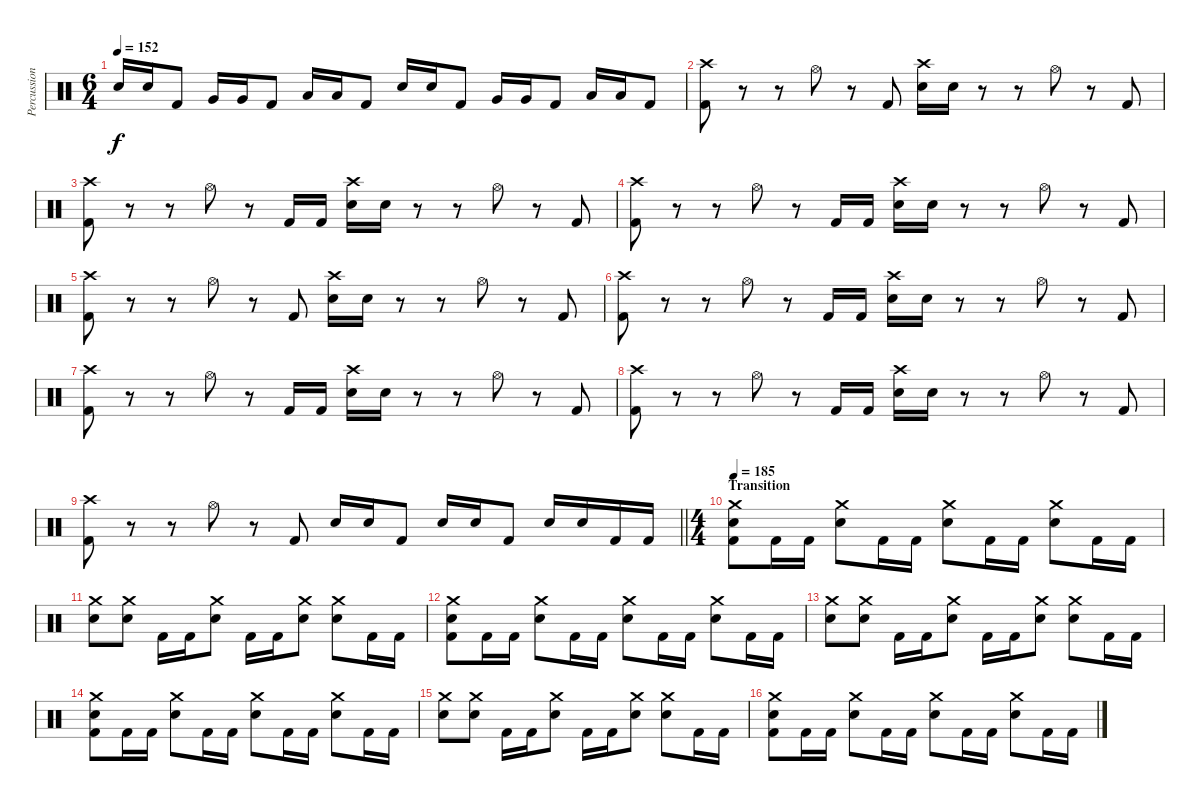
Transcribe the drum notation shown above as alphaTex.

\track ("Percussion" "Percussion") {instrument percussion}
\staff {score}
\articulation defaults
\ts (6 4)
\tempo 152
\clef neutral
\ks c "Electric Snare (hit)".16{dy f} "Electric Snare (hit)".16 "Kick (hit) 2".8 "Very Low Tom (hit)".16 "Very Low Tom (hit)".16 "Kick (hit) 2".8 "Low Floor Tom (hit)".16 "Low Floor Tom (hit)".16 "Kick (hit) 2".8 "Electric Snare (hit)".16 "Electric Snare (hit)".16 "Kick (hit) 2".8 "Very Low Tom (hit)".16 "Very Low Tom (hit)".16 "Kick (hit) 2".8 "Low Floor Tom (hit)".16 "Low Floor Tom (hit)".16 "Kick (hit) 2".8
|
("Crash high (hit)" "Kick (hit) 2").8 r.8 r.8 "Hi-Hat (open)".8 r.8 "Kick (hit) 2".8 ("Crash high (hit)" "Electric Snare (hit)").16 "Electric Snare (hit)".16 r.8 r.8 "Hi-Hat (open)".8 r.8 "Kick (hit) 2".8 |
("Crash high (hit)" "Kick (hit) 2").8 r.8 r.8 "Hi-Hat (open)".8 r.8 "Kick (hit) 2".16 "Kick (hit) 2".16 ("Crash high (hit)" "Electric Snare (hit)").16 "Electric Snare (hit)".16 r.8 r.8 "Hi-Hat (open)".8 r.8 "Kick (hit) 2".8 |
("Crash high (hit)" "Kick (hit) 2").8 r.8 r.8 "Hi-Hat (open)".8 r.8 "Kick (hit) 2".16 "Kick (hit) 2".16 ("Crash high (hit)" "Electric Snare (hit)").16 "Electric Snare (hit)".16 r.8 r.8 "Hi-Hat (open)".8 r.8 "Kick (hit) 2".8 |
("Crash high (hit)" "Kick (hit) 2").8 r.8 r.8 "Hi-Hat (open)".8 r.8 "Kick (hit) 2".8 ("Crash high (hit)" "Electric Snare (hit)").16 "Electric Snare (hit)".16 r.8 r.8 "Hi-Hat (open)".8 r.8 "Kick (hit) 2".8 |
("Crash high (hit)" "Kick (hit) 2").8 r.8 r.8 "Hi-Hat (open)".8 r.8 "Kick (hit) 2".16 "Kick (hit) 2".16 ("Crash high (hit)" "Electric Snare (hit)").16 "Electric Snare (hit)".16 r.8 r.8 "Hi-Hat (open)".8 r.8 "Kick (hit) 2".8 |
("Crash high (hit)" "Kick (hit) 2").8 r.8 r.8 "Hi-Hat (open)".8 r.8 "Kick (hit) 2".16 "Kick (hit) 2".16 ("Crash high (hit)" "Electric Snare (hit)").16 "Electric Snare (hit)".16 r.8 r.8 "Hi-Hat (open)".8 r.8 "Kick (hit) 2".8 |
("Crash high (hit)" "Kick (hit) 2").8 r.8 r.8 "Hi-Hat (open)".8 r.8 "Kick (hit) 2".16 "Kick (hit) 2".16 ("Crash high (hit)" "Electric Snare (hit)").16 "Electric Snare (hit)".16 r.8 r.8 "Hi-Hat (open)".8 r.8 "Kick (hit) 2".8 |
\barLineRight lightlight
("Crash high (hit)" "Kick (hit) 2").8 r.8 r.8 "Hi-Hat (open)".8 r.8 "Kick (hit) 2".8 "Electric Snare (hit)".16 "Electric Snare (hit)".16 "Kick (hit) 2".8 "Electric Snare (hit)".16 "Electric Snare (hit)".16 "Kick (hit) 2".8 "Electric Snare (hit)".16 "Electric Snare (hit)".16 "Kick (hit) 2".16 "Kick (hit) 2".16 |
\ts (4 4)
\section ("" "Transition")
\tempo 185
("Crash medium (hit)" "Electric Snare (hit)" "Kick (hit) 2").8 "Kick (hit) 2".16 "Kick (hit) 2".16 ("Crash medium (hit)" "Electric Snare (hit)").8 "Kick (hit) 2".16 "Kick (hit) 2".16 ("Crash medium (hit)" "Electric Snare (hit)").8 "Kick (hit) 2".16 "Kick (hit) 2".16 ("Crash medium (hit)" "Electric Snare (hit)").8 "Kick (hit) 2".16 "Kick (hit) 2".16 |
("Crash medium (hit)" "Electric Snare (hit)").8 ("Crash medium (hit)" "Electric Snare (hit)").8 "Kick (hit) 2".16 "Kick (hit) 2".16 ("Crash medium (hit)" "Electric Snare (hit)").8 "Kick (hit) 2".16 "Kick (hit) 2".16 ("Crash medium (hit)" "Electric Snare (hit)").8 ("Crash medium (hit)" "Electric Snare (hit)").8 "Kick (hit) 2".16 "Kick (hit) 2".16 |
("Crash medium (hit)" "Electric Snare (hit)" "Kick (hit) 2").8 "Kick (hit) 2".16 "Kick (hit) 2".16 ("Crash medium (hit)" "Electric Snare (hit)").8 "Kick (hit) 2".16 "Kick (hit) 2".16 ("Crash medium (hit)" "Electric Snare (hit)").8 "Kick (hit) 2".16 "Kick (hit) 2".16 ("Crash medium (hit)" "Electric Snare (hit)").8 "Kick (hit) 2".16 "Kick (hit) 2".16 |
("Crash medium (hit)" "Electric Snare (hit)").8 ("Crash medium (hit)" "Electric Snare (hit)").8 "Kick (hit) 2".16 "Kick (hit) 2".16 ("Crash medium (hit)" "Electric Snare (hit)").8 "Kick (hit) 2".16 "Kick (hit) 2".16 ("Crash medium (hit)" "Electric Snare (hit)").8 ("Crash medium (hit)" "Electric Snare (hit)").8 "Kick (hit) 2".16 "Kick (hit) 2".16 |
("Crash medium (hit)" "Electric Snare (hit)" "Kick (hit) 2").8 "Kick (hit) 2".16 "Kick (hit) 2".16 ("Crash medium (hit)" "Electric Snare (hit)").8 "Kick (hit) 2".16 "Kick (hit) 2".16 ("Crash medium (hit)" "Electric Snare (hit)").8 "Kick (hit) 2".16 "Kick (hit) 2".16 ("Crash medium (hit)" "Electric Snare (hit)").8 "Kick (hit) 2".16 "Kick (hit) 2".16 |
("Crash medium (hit)" "Electric Snare (hit)").8 ("Crash medium (hit)" "Electric Snare (hit)").8 "Kick (hit) 2".16 "Kick (hit) 2".16 ("Crash medium (hit)" "Electric Snare (hit)").8 "Kick (hit) 2".16 "Kick (hit) 2".16 ("Crash medium (hit)" "Electric Snare (hit)").8 ("Crash medium (hit)" "Electric Snare (hit)").8 "Kick (hit) 2".16 "Kick (hit) 2".16 |
("Crash medium (hit)" "Electric Snare (hit)" "Kick (hit) 2").8 "Kick (hit) 2".16 "Kick (hit) 2".16 ("Crash medium (hit)" "Electric Snare (hit)").8 "Kick (hit) 2".16 "Kick (hit) 2".16 ("Crash medium (hit)" "Electric Snare (hit)").8 "Kick (hit) 2".16 "Kick (hit) 2".16 ("Crash medium (hit)" "Electric Snare (hit)").8 "Kick (hit) 2".16 "Kick (hit) 2".16
